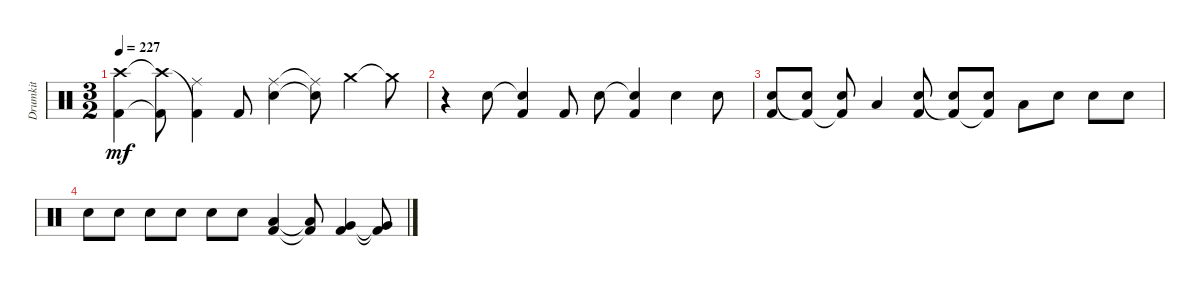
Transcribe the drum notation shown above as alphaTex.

\track ("Drumkit" "Drumkit") {instrument percussion}
\staff {score}
\articulation defaults
\ts (3 2)
\tempo 227
\clef neutral
\ks c
("Crash high (hit)" "Kick (hit) 2").4{dy mf} ("Crash high (hit)"{t} "Kick (hit) 2"{t}).8 ("Kick (hit) 2"{t} "Ride (middle)").4 "Kick (hit) 2".8 ("Electric Snare (hit)" "Ride (middle)").4 ("Electric Snare (hit)"{t} "Ride (middle)"{t}).8 "Crash medium (hit)".4 "Crash medium (hit)"{t}.8 |
r.4 "Electric Snare (hit)".8 ("Electric Snare (hit)"{t} "Kick (hit) 2").4 "Kick (hit) 2".8 "Electric Snare (hit)".8 ("Electric Snare (hit)"{t} "Kick (hit) 2").4 "Electric Snare (hit)".4 "Electric Snare (hit)".8 |
("Electric Snare (hit)" "Kick (hit) 2").8 ("Kick (hit) 2"{t} "Electric Snare (hit)").8 ("Kick (hit) 2"{t} "Electric Snare (hit)").8 "Low Tom (hit)".4 ("Electric Snare (hit)" "Kick (hit) 2").8 ("Kick (hit) 2"{t} "Electric Snare (hit)").8 ("Kick (hit) 2"{t} "Electric Snare (hit)").8 "Low Tom (hit)".8 "Electric Snare (hit)".8 "Electric Snare (hit)".8 "Electric Snare (hit)".8 |
"Electric Snare (hit)".8 "Electric Snare (hit)".8 "Electric Snare (hit)".8 "Electric Snare (hit)".8 "Electric Snare (hit)".8 "Electric Snare (hit)".8 ("Kick (hit) 2" "Low Tom (hit)").4 ("Kick (hit) 2"{t} "Low Tom (hit)"{t}).8 ("Kick (hit) 2" "Very Low Tom (hit)").4 ("Kick (hit) 2"{t} "Very Low Tom (hit)"{t}).8
